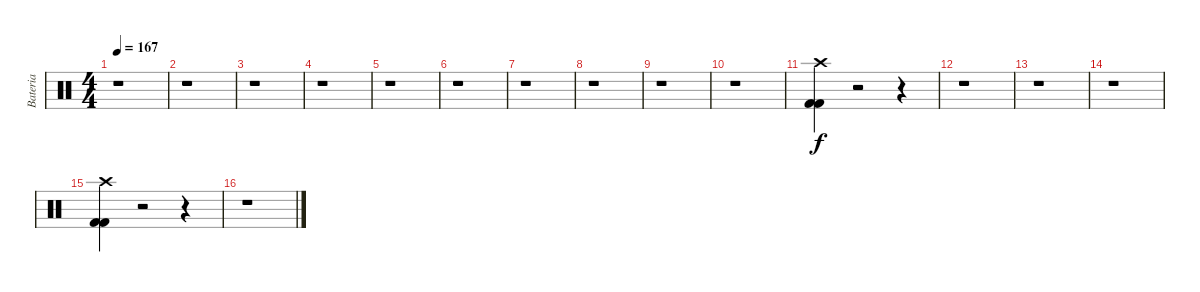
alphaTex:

\track ("Bateria" "Bateria") {instrument percussion}
\staff {score}
\articulation defaults
\ts (4 4)
\tempo 167
\clef neutral
\ks c
r.1{dy f} |
r.1 |
r.1 |
r.1 |
r.1 |
r.1 |
r.1 |
r.1 |
r.1 |
r.1 |
("Kick (hit) 2" "Kick (hit) 2" "Crash high (hit)").4 r.2 r.4 |
r.1 |
r.1 |
r.1 |
("Kick (hit) 2" "Kick (hit) 2" "Crash high (hit)").4 r.2 r.4 |
r.1
